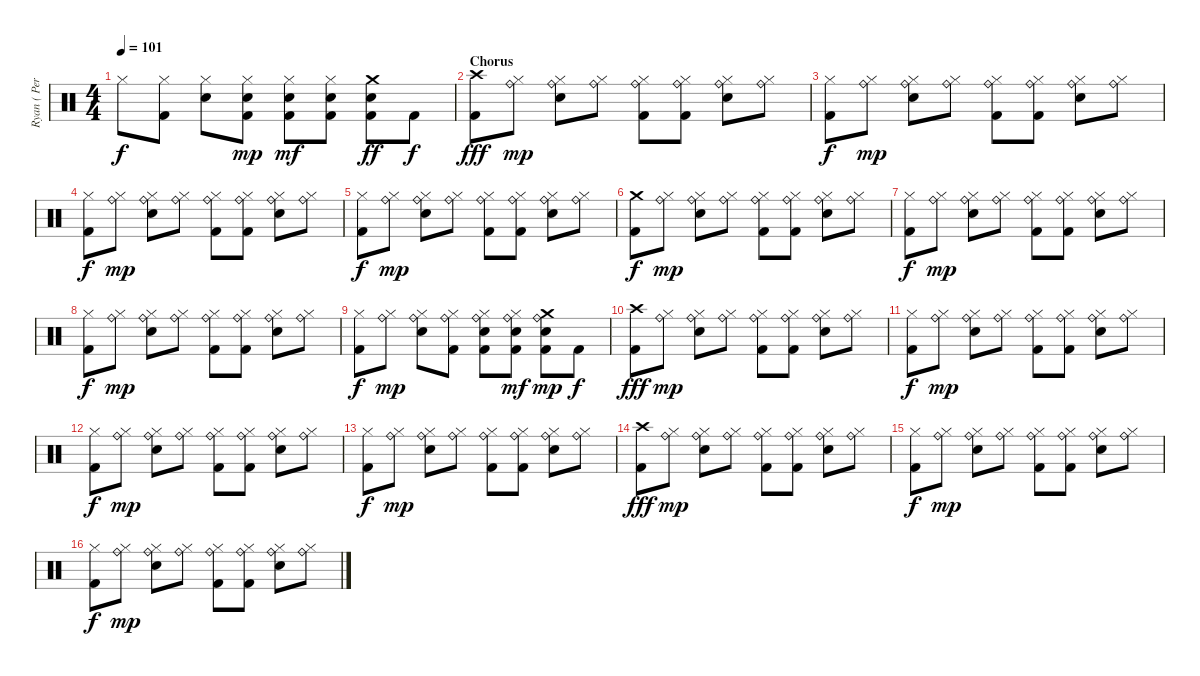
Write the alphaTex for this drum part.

\track ("Ryan ( Percussion )" "Ryan ( Per") {instrument percussion}
\staff {score}
\articulation defaults
\ts (4 4)
\tempo 101
\clef neutral
\ks c "Hi-Hat (closed)".8{dy f}
("Hi-Hat (closed)" "Kick (hit) 2").8 ("Hi-Hat (closed)" "Electric Snare (hit)").8 ("Hi-Hat (closed)" "Kick (hit) 2" "Snare (hit) 2").8{dy mp} ("Hi-Hat (closed)" "Kick (hit) 2" "Snare (hit) 2").8{dy mf} ("Hi-Hat (closed)" "Kick (hit) 2" "Snare (hit) 2").8 ("Crash medium (hit)" "Kick (hit) 2" "Snare (hit) 2").8{dy ff} "Kick (hit) 2".8{dy f} |
\section ("" "Chorus")
("Crash high (hit)" "Kick (hit) 2").8{dy fff} ("Hi-Hat (closed)" "Ride (bell)").8{dy mp} ("Hi-Hat (closed)" "Snare (hit) 2" "Ride (bell)").8 ("Hi-Hat (closed)" "Ride (bell)").8 ("Hi-Hat (closed)" "Kick (hit) 2" "Ride (bell)").8 ("Hi-Hat (closed)" "Kick (hit) 2" "Ride (bell)").8 ("Hi-Hat (closed)" "Snare (hit) 2" "Ride (bell)").8 ("Hi-Hat (closed)" "Ride (bell)").8 |
("Hi-Hat (closed)" "Kick (hit) 2").8{dy f} ("Hi-Hat (closed)" "Ride (bell)").8{dy mp} ("Hi-Hat (closed)" "Snare (hit) 2" "Ride (bell)").8 ("Hi-Hat (closed)" "Ride (bell)").8 ("Hi-Hat (closed)" "Kick (hit) 2" "Ride (bell)").8 ("Hi-Hat (closed)" "Kick (hit) 2" "Ride (bell)").8 ("Hi-Hat (closed)" "Snare (hit) 2" "Ride (bell)").8 ("Hi-Hat (closed)" "Ride (bell)").8 |
("Hi-Hat (closed)" "Kick (hit) 2").8{dy f} ("Hi-Hat (closed)" "Ride (bell)").8{dy mp} ("Hi-Hat (closed)" "Snare (hit) 2" "Ride (bell)").8 ("Hi-Hat (closed)" "Ride (bell)").8 ("Hi-Hat (closed)" "Kick (hit) 2" "Ride (bell)").8 ("Hi-Hat (closed)" "Kick (hit) 2" "Ride (bell)").8 ("Hi-Hat (closed)" "Snare (hit) 2" "Ride (bell)").8 ("Hi-Hat (closed)" "Ride (bell)").8 |
("Hi-Hat (closed)" "Kick (hit) 2").8{dy f} ("Hi-Hat (closed)" "Ride (bell)").8{dy mp} ("Hi-Hat (closed)" "Snare (hit) 2" "Ride (bell)").8 ("Hi-Hat (closed)" "Ride (bell)").8 ("Hi-Hat (closed)" "Kick (hit) 2" "Ride (bell)").8 ("Hi-Hat (closed)" "Kick (hit) 2" "Ride (bell)").8 ("Hi-Hat (closed)" "Snare (hit) 2" "Ride (bell)").8 ("Hi-Hat (closed)" "Ride (bell)").8 |
("Crash medium (hit)" "Kick (hit) 2").8{dy f} ("Hi-Hat (closed)" "Ride (bell)").8{dy mp} ("Hi-Hat (closed)" "Snare (hit) 2" "Ride (bell)").8 ("Hi-Hat (closed)" "Ride (bell)").8 ("Hi-Hat (closed)" "Kick (hit) 2" "Ride (bell)").8 ("Hi-Hat (closed)" "Kick (hit) 2" "Ride (bell)").8 ("Hi-Hat (closed)" "Snare (hit) 2" "Ride (bell)").8 ("Hi-Hat (closed)" "Ride (bell)").8 |
("Hi-Hat (closed)" "Kick (hit) 2").8{dy f} ("Hi-Hat (closed)" "Ride (bell)").8{dy mp} ("Hi-Hat (closed)" "Snare (hit) 2" "Ride (bell)").8 ("Hi-Hat (closed)" "Ride (bell)").8 ("Hi-Hat (closed)" "Kick (hit) 2" "Ride (bell)").8 ("Hi-Hat (closed)" "Kick (hit) 2" "Ride (bell)").8 ("Hi-Hat (closed)" "Snare (hit) 2" "Ride (bell)").8 ("Hi-Hat (closed)" "Ride (bell)").8 |
("Hi-Hat (closed)" "Kick (hit) 2").8{dy f} ("Hi-Hat (closed)" "Ride (bell)").8{dy mp} ("Hi-Hat (closed)" "Snare (hit) 2" "Ride (bell)").8 ("Hi-Hat (closed)" "Ride (bell)").8 ("Hi-Hat (closed)" "Kick (hit) 2" "Ride (bell)").8 ("Hi-Hat (closed)" "Kick (hit) 2" "Ride (bell)").8 ("Hi-Hat (closed)" "Snare (hit) 2" "Ride (bell)").8 ("Hi-Hat (closed)" "Ride (bell)").8 |
("Hi-Hat (closed)" "Kick (hit) 2").8{dy f} ("Hi-Hat (closed)" "Ride (bell)").8{dy mp} ("Hi-Hat (closed)" "Snare (hit) 2" "Ride (bell)").8 ("Hi-Hat (closed)" "Kick (hit) 2" "Ride (bell)").8 ("Hi-Hat (closed)" "Kick (hit) 2" "Snare (hit) 2" "Ride (bell)").8 ("Hi-Hat (closed)" "Kick (hit) 2" "Snare (hit) 2" "Ride (bell)").8{dy mf} ("Crash medium (hit)" "Kick (hit) 2" "Snare (hit) 2" "Ride (bell)").8{dy mp} "Kick (hit) 2".8{dy f} |
("Crash high (hit)" "Kick (hit) 2").8{dy fff} ("Hi-Hat (closed)" "Ride (bell)").8{dy mp} ("Hi-Hat (closed)" "Snare (hit) 2" "Ride (bell)").8 ("Hi-Hat (closed)" "Ride (bell)").8 ("Hi-Hat (closed)" "Kick (hit) 2" "Ride (bell)").8 ("Hi-Hat (closed)" "Kick (hit) 2" "Ride (bell)").8 ("Hi-Hat (closed)" "Snare (hit) 2" "Ride (bell)").8 ("Hi-Hat (closed)" "Ride (bell)").8 |
("Hi-Hat (closed)" "Kick (hit) 2").8{dy f} ("Hi-Hat (closed)" "Ride (bell)").8{dy mp} ("Hi-Hat (closed)" "Snare (hit) 2" "Ride (bell)").8 ("Hi-Hat (closed)" "Ride (bell)").8 ("Hi-Hat (closed)" "Kick (hit) 2" "Ride (bell)").8 ("Hi-Hat (closed)" "Kick (hit) 2" "Ride (bell)").8 ("Hi-Hat (closed)" "Snare (hit) 2" "Ride (bell)").8 ("Hi-Hat (closed)" "Ride (bell)").8 |
("Hi-Hat (closed)" "Kick (hit) 2").8{dy f} ("Hi-Hat (closed)" "Ride (bell)").8{dy mp} ("Hi-Hat (closed)" "Snare (hit) 2" "Ride (bell)").8 ("Hi-Hat (closed)" "Ride (bell)").8 ("Hi-Hat (closed)" "Kick (hit) 2" "Ride (bell)").8 ("Hi-Hat (closed)" "Kick (hit) 2" "Ride (bell)").8 ("Hi-Hat (closed)" "Snare (hit) 2" "Ride (bell)").8 ("Hi-Hat (closed)" "Ride (bell)").8 |
("Hi-Hat (closed)" "Kick (hit) 2").8{dy f} ("Hi-Hat (closed)" "Ride (bell)").8{dy mp} ("Hi-Hat (closed)" "Snare (hit) 2" "Ride (bell)").8 ("Hi-Hat (closed)" "Ride (bell)").8 ("Hi-Hat (closed)" "Kick (hit) 2" "Ride (bell)").8 ("Hi-Hat (closed)" "Kick (hit) 2" "Ride (bell)").8 ("Hi-Hat (closed)" "Snare (hit) 2" "Ride (bell)").8 ("Hi-Hat (closed)" "Ride (bell)").8 |
("Crash high (hit)" "Kick (hit) 2").8{dy fff} ("Hi-Hat (closed)" "Ride (bell)").8{dy mp} ("Hi-Hat (closed)" "Snare (hit) 2" "Ride (bell)").8 ("Hi-Hat (closed)" "Ride (bell)").8 ("Hi-Hat (closed)" "Kick (hit) 2" "Ride (bell)").8 ("Hi-Hat (closed)" "Kick (hit) 2" "Ride (bell)").8 ("Hi-Hat (closed)" "Snare (hit) 2" "Ride (bell)").8 ("Hi-Hat (closed)" "Ride (bell)").8 |
("Hi-Hat (closed)" "Kick (hit) 2").8{dy f} ("Hi-Hat (closed)" "Ride (bell)").8{dy mp} ("Hi-Hat (closed)" "Snare (hit) 2" "Ride (bell)").8 ("Hi-Hat (closed)" "Ride (bell)").8 ("Hi-Hat (closed)" "Kick (hit) 2" "Ride (bell)").8 ("Hi-Hat (closed)" "Kick (hit) 2" "Ride (bell)").8 ("Hi-Hat (closed)" "Snare (hit) 2" "Ride (bell)").8 ("Hi-Hat (closed)" "Ride (bell)").8 |
("Hi-Hat (closed)" "Kick (hit) 2").8{dy f} ("Hi-Hat (closed)" "Ride (bell)").8{dy mp} ("Hi-Hat (closed)" "Snare (hit) 2" "Ride (bell)").8 ("Hi-Hat (closed)" "Ride (bell)").8 ("Hi-Hat (closed)" "Kick (hit) 2" "Ride (bell)").8 ("Hi-Hat (closed)" "Kick (hit) 2" "Ride (bell)").8 ("Hi-Hat (closed)" "Snare (hit) 2" "Ride (bell)").8 ("Hi-Hat (closed)" "Ride (bell)").8
